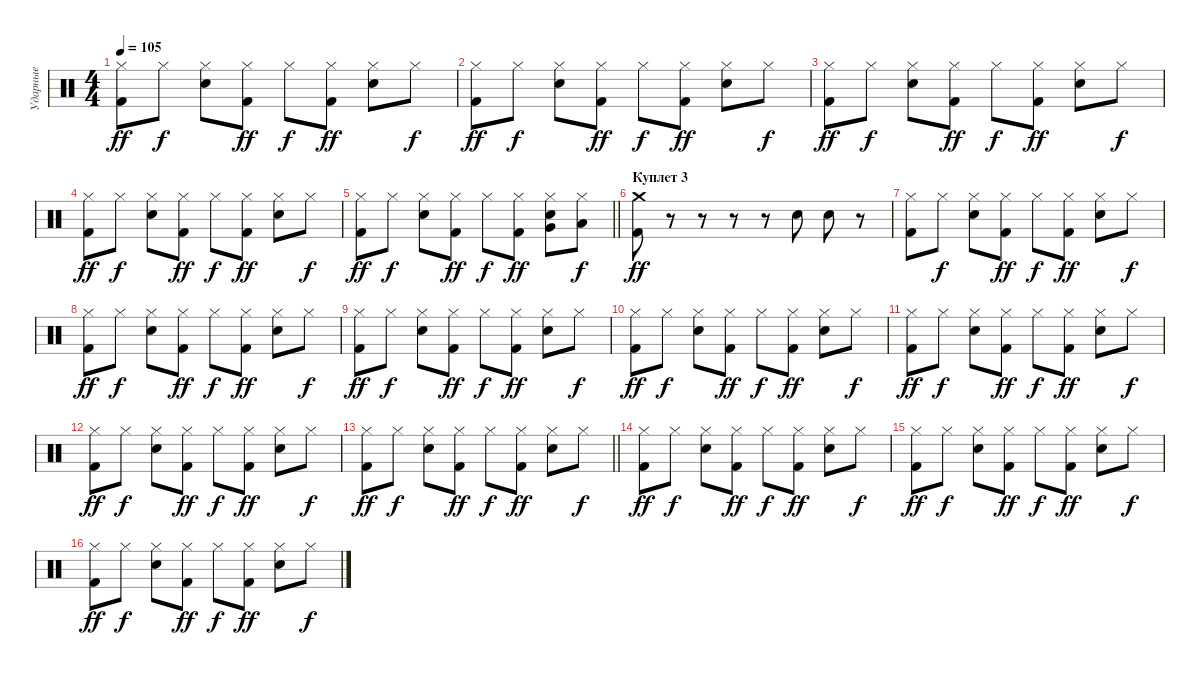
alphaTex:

\track ("Ударные" "Ударные") {solo instrument percussion}
\staff {score}
\articulation defaults
\ts (4 4)
\tempo 105
\clef neutral
\ks c
("Kick (hit) 2" "Hi-Hat (closed)").8{dy ff} "Hi-Hat (closed)".8{dy f} ("Snare (hit) 2" "Hi-Hat (closed)").8 ("Kick (hit) 2" "Hi-Hat (closed)").8{dy ff} "Hi-Hat (closed)".8{dy f} ("Kick (hit) 2" "Hi-Hat (closed)").8{dy ff} ("Snare (hit) 2" "Hi-Hat (closed)").8 "Hi-Hat (closed)".8{dy f} |
("Kick (hit) 2" "Hi-Hat (closed)").8{dy ff} "Hi-Hat (closed)".8{dy f} ("Snare (hit) 2" "Hi-Hat (closed)").8 ("Kick (hit) 2" "Hi-Hat (closed)").8{dy ff} "Hi-Hat (closed)".8{dy f} ("Kick (hit) 2" "Hi-Hat (closed)").8{dy ff} ("Snare (hit) 2" "Hi-Hat (closed)").8 "Hi-Hat (closed)".8{dy f} |
("Kick (hit) 2" "Hi-Hat (closed)").8{dy ff} "Hi-Hat (closed)".8{dy f} ("Snare (hit) 2" "Hi-Hat (closed)").8 ("Kick (hit) 2" "Hi-Hat (closed)").8{dy ff} "Hi-Hat (closed)".8{dy f} ("Kick (hit) 2" "Hi-Hat (closed)").8{dy ff} ("Snare (hit) 2" "Hi-Hat (closed)").8 "Hi-Hat (closed)".8{dy f} |
("Kick (hit) 2" "Hi-Hat (closed)").8{dy ff} "Hi-Hat (closed)".8{dy f} ("Snare (hit) 2" "Hi-Hat (closed)").8 ("Kick (hit) 2" "Hi-Hat (closed)").8{dy ff} "Hi-Hat (closed)".8{dy f} ("Kick (hit) 2" "Hi-Hat (closed)").8{dy ff} ("Snare (hit) 2" "Hi-Hat (closed)").8 "Hi-Hat (closed)".8{dy f} |
\barLineRight lightlight
("Kick (hit) 2" "Hi-Hat (closed)").8{dy ff} "Hi-Hat (closed)".8{dy f} ("Snare (hit) 2" "Hi-Hat (closed)").8 ("Kick (hit) 2" "Hi-Hat (closed)").8{dy ff} "Hi-Hat (closed)".8{dy f} ("Kick (hit) 2" "Hi-Hat (closed)").8{dy ff} ("Snare (hit) 2" "Very Low Tom (hit)" "Hi-Hat (closed)").8 ("Low Floor Tom (hit)" "Hi-Hat (closed)").8{dy f} |
\section ("" "Куплет 3")
("Kick (hit) 2" "Crash medium (hit)").8{dy ff} r.8 r.8 r.8 r.8 "Snare (hit) 2".8 "Snare (hit) 2".8 r.8 |
("Kick (hit) 2" "Hi-Hat (closed)").8 "Hi-Hat (closed)".8{dy f} ("Snare (hit) 2" "Hi-Hat (closed)").8 ("Kick (hit) 2" "Hi-Hat (closed)").8{dy ff} "Hi-Hat (closed)".8{dy f} ("Kick (hit) 2" "Hi-Hat (closed)").8{dy ff} ("Snare (hit) 2" "Hi-Hat (closed)").8 "Hi-Hat (closed)".8{dy f} |
("Kick (hit) 2" "Hi-Hat (closed)").8{dy ff} "Hi-Hat (closed)".8{dy f} ("Snare (hit) 2" "Hi-Hat (closed)").8 ("Kick (hit) 2" "Hi-Hat (closed)").8{dy ff} "Hi-Hat (closed)".8{dy f} ("Kick (hit) 2" "Hi-Hat (closed)").8{dy ff} ("Snare (hit) 2" "Hi-Hat (closed)").8 "Hi-Hat (closed)".8{dy f} |
("Kick (hit) 2" "Hi-Hat (closed)").8{dy ff} "Hi-Hat (closed)".8{dy f} ("Snare (hit) 2" "Hi-Hat (closed)").8 ("Kick (hit) 2" "Hi-Hat (closed)").8{dy ff} "Hi-Hat (closed)".8{dy f} ("Kick (hit) 2" "Hi-Hat (closed)").8{dy ff} ("Snare (hit) 2" "Hi-Hat (closed)").8 "Hi-Hat (closed)".8{dy f} |
("Kick (hit) 2" "Hi-Hat (closed)").8{dy ff} "Hi-Hat (closed)".8{dy f} ("Snare (hit) 2" "Hi-Hat (closed)").8 ("Kick (hit) 2" "Hi-Hat (closed)").8{dy ff} "Hi-Hat (closed)".8{dy f} ("Kick (hit) 2" "Hi-Hat (closed)").8{dy ff} ("Snare (hit) 2" "Hi-Hat (closed)").8 "Hi-Hat (closed)".8{dy f} |
("Kick (hit) 2" "Hi-Hat (closed)").8{dy ff} "Hi-Hat (closed)".8{dy f} ("Snare (hit) 2" "Hi-Hat (closed)").8 ("Kick (hit) 2" "Hi-Hat (closed)").8{dy ff} "Hi-Hat (closed)".8{dy f} ("Kick (hit) 2" "Hi-Hat (closed)").8{dy ff} ("Snare (hit) 2" "Hi-Hat (closed)").8 "Hi-Hat (closed)".8{dy f} |
("Kick (hit) 2" "Hi-Hat (closed)").8{dy ff} "Hi-Hat (closed)".8{dy f} ("Snare (hit) 2" "Hi-Hat (closed)").8 ("Kick (hit) 2" "Hi-Hat (closed)").8{dy ff} "Hi-Hat (closed)".8{dy f} ("Kick (hit) 2" "Hi-Hat (closed)").8{dy ff} ("Snare (hit) 2" "Hi-Hat (closed)").8 "Hi-Hat (closed)".8{dy f} |
\barLineRight lightlight
("Kick (hit) 2" "Hi-Hat (closed)").8{dy ff} "Hi-Hat (closed)".8{dy f} ("Snare (hit) 2" "Hi-Hat (closed)").8 ("Kick (hit) 2" "Hi-Hat (closed)").8{dy ff} "Hi-Hat (closed)".8{dy f} ("Kick (hit) 2" "Hi-Hat (closed)").8{dy ff} ("Snare (hit) 2" "Hi-Hat (closed)").8 "Hi-Hat (closed)".8{dy f} |
\section ("" "")
("Kick (hit) 2" "Hi-Hat (closed)").8{dy ff} "Hi-Hat (closed)".8{dy f} ("Snare (hit) 2" "Hi-Hat (closed)").8 ("Kick (hit) 2" "Hi-Hat (closed)").8{dy ff} "Hi-Hat (closed)".8{dy f} ("Kick (hit) 2" "Hi-Hat (closed)").8{dy ff} ("Snare (hit) 2" "Hi-Hat (closed)").8 "Hi-Hat (closed)".8{dy f} |
("Kick (hit) 2" "Hi-Hat (closed)").8{dy ff} "Hi-Hat (closed)".8{dy f} ("Snare (hit) 2" "Hi-Hat (closed)").8 ("Kick (hit) 2" "Hi-Hat (closed)").8{dy ff} "Hi-Hat (closed)".8{dy f} ("Kick (hit) 2" "Hi-Hat (closed)").8{dy ff} ("Snare (hit) 2" "Hi-Hat (closed)").8 "Hi-Hat (closed)".8{dy f} |
("Kick (hit) 2" "Hi-Hat (closed)").8{dy ff} "Hi-Hat (closed)".8{dy f} ("Snare (hit) 2" "Hi-Hat (closed)").8 ("Kick (hit) 2" "Hi-Hat (closed)").8{dy ff} "Hi-Hat (closed)".8{dy f} ("Kick (hit) 2" "Hi-Hat (closed)").8{dy ff} ("Snare (hit) 2" "Hi-Hat (closed)").8 "Hi-Hat (closed)".8{dy f}
